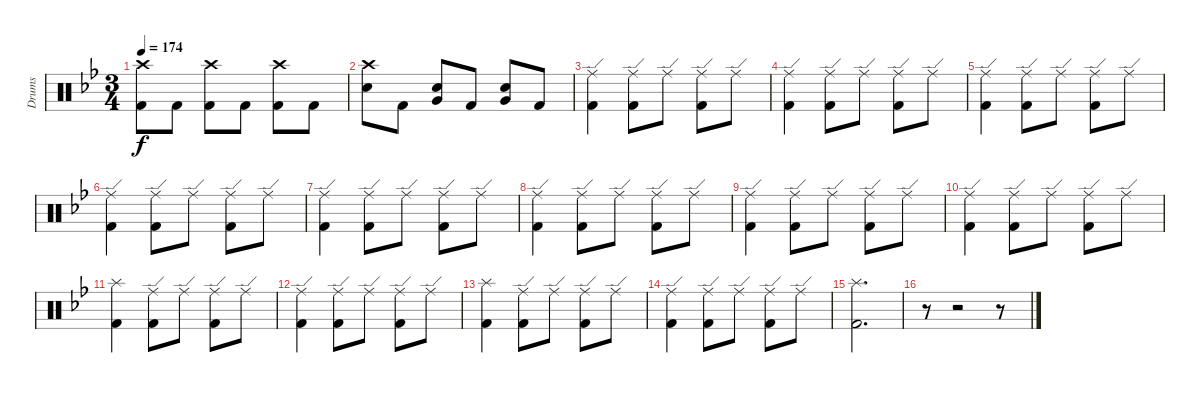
\bracketExtendMode groupsimilarinstruments
\track ("Drumkit" "Drums") {instrument percussion}
\staff {score}
\articulation defaults
\ts (3 4)
\tempo 174
\clef neutral
\ks bb
("Crash high (hit)"{acc forcenatural} "Kick (hit) 2"{acc forcenatural}).8{dy f} "Kick (hit) 2"{acc forcenatural}.8 ("Crash high (hit)"{acc forcenatural} "Kick (hit) 2"{acc forcenatural}).8 "Kick (hit) 2"{acc forcenatural}.8 ("Crash high (hit)"{acc forcenatural} "Kick (hit) 2"{acc forcenatural}).8 "Kick (hit) 2"{acc forcenatural}.8 |
("Crash high (hit)"{acc forcenatural} "Snare (hit) 2"{acc forcenatural}).8 "Kick (hit) 2"{acc forcenatural}.8 ("Snare (hit) 2"{acc forcenatural} "Very Low Tom (hit)"{acc forcenatural}).8 "Kick (hit) 2"{acc forcenatural}.8 ("Snare (hit) 2"{acc forcenatural} "Very Low Tom (hit)"{acc forcenatural}).8 "Kick (hit) 2"{acc forcenatural}.8 |
("Ride (edge)"{acc forcenatural} "Kick (hit) 2"{acc forcenatural}).4 ("Ride (edge)"{acc forcenatural} "Kick (hit) 2"{acc forcenatural}).8 "Ride (edge)"{acc forcenatural}.8 ("Ride (edge)"{acc forcenatural} "Kick (hit) 2"{acc forcenatural}).8 "Ride (edge)"{acc forcenatural}.8 |
("Ride (edge)"{acc forcenatural} "Kick (hit) 2"{acc forcenatural}).4 ("Ride (edge)"{acc forcenatural} "Kick (hit) 2"{acc forcenatural}).8 "Ride (edge)"{acc forcenatural}.8 ("Ride (edge)"{acc forcenatural} "Kick (hit) 2"{acc forcenatural}).8 "Ride (edge)"{acc forcenatural}.8 |
("Ride (edge)"{acc forcenatural} "Kick (hit) 2"{acc forcenatural}).4 ("Ride (edge)"{acc forcenatural} "Kick (hit) 2"{acc forcenatural}).8 "Ride (edge)"{acc forcenatural}.8 ("Ride (edge)"{acc forcenatural} "Kick (hit) 2"{acc forcenatural}).8 "Ride (edge)"{acc forcenatural}.8 |
("Ride (edge)"{acc forcenatural} "Kick (hit) 2"{acc forcenatural}).4 ("Ride (edge)"{acc forcenatural} "Kick (hit) 2"{acc forcenatural}).8 "Ride (edge)"{acc forcenatural}.8 ("Ride (edge)"{acc forcenatural} "Kick (hit) 2"{acc forcenatural}).8 "Ride (edge)"{acc forcenatural}.8 |
("Ride (edge)"{acc forcenatural} "Kick (hit) 2"{acc forcenatural}).4 ("Ride (edge)"{acc forcenatural} "Kick (hit) 2"{acc forcenatural}).8 "Ride (edge)"{acc forcenatural}.8 ("Ride (edge)"{acc forcenatural} "Kick (hit) 2"{acc forcenatural}).8 "Ride (edge)"{acc forcenatural}.8 |
("Ride (edge)"{acc forcenatural} "Kick (hit) 2"{acc forcenatural}).4 ("Ride (edge)"{acc forcenatural} "Kick (hit) 2"{acc forcenatural}).8 "Ride (edge)"{acc forcenatural}.8 ("Ride (edge)"{acc forcenatural} "Kick (hit) 2"{acc forcenatural}).8 "Ride (edge)"{acc forcenatural}.8 |
("Ride (edge)"{acc forcenatural} "Kick (hit) 2"{acc forcenatural}).4 ("Ride (edge)"{acc forcenatural} "Kick (hit) 2"{acc forcenatural}).8 "Ride (edge)"{acc forcenatural}.8 ("Ride (edge)"{acc forcenatural} "Kick (hit) 2"{acc forcenatural}).8 "Ride (edge)"{acc forcenatural}.8 |
("Ride (edge)"{acc forcenatural} "Kick (hit) 2"{acc forcenatural}).4 ("Ride (edge)"{acc forcenatural} "Kick (hit) 2"{acc forcenatural}).8 "Ride (edge)"{acc forcenatural}.8 ("Ride (edge)"{acc forcenatural} "Kick (hit) 2"{acc forcenatural}).8 "Ride (edge)"{acc forcenatural}.8 |
("Splash (hit)"{acc forcenatural} "Kick (hit) 2"{acc forcenatural}).4 ("Ride (edge)"{acc forcenatural} "Kick (hit) 2"{acc forcenatural}).8 "Ride (edge)"{acc forcenatural}.8 ("Ride (edge)"{acc forcenatural} "Kick (hit) 2"{acc forcenatural}).8 "Ride (edge)"{acc forcenatural}.8 |
("Ride (edge)"{acc forcenatural} "Kick (hit) 2"{acc forcenatural}).4 ("Ride (edge)"{acc forcenatural} "Kick (hit) 2"{acc forcenatural}).8 "Ride (edge)"{acc forcenatural}.8 ("Ride (edge)"{acc forcenatural} "Kick (hit) 2"{acc forcenatural}).8 "Ride (edge)"{acc forcenatural}.8 |
("Splash (hit)"{acc forcenatural} "Kick (hit) 2"{acc forcenatural}).4 ("Ride (edge)"{acc forcenatural} "Kick (hit) 2"{acc forcenatural}).8 "Ride (edge)"{acc forcenatural}.8 ("Ride (edge)"{acc forcenatural} "Kick (hit) 2"{acc forcenatural}).8 "Ride (edge)"{acc forcenatural}.8 |
("Ride (edge)"{acc forcenatural} "Kick (hit) 2"{acc forcenatural}).4 ("Ride (edge)"{acc forcenatural} "Kick (hit) 2"{acc forcenatural}).8 "Ride (edge)"{acc forcenatural}.8 ("Ride (edge)"{acc forcenatural} "Kick (hit) 2"{acc forcenatural}).8 "Ride (edge)"{acc forcenatural}.8 |
("Splash (hit)"{acc forcenatural} "Kick (hit) 2"{acc forcenatural}).2{d} |
r.8 r.2 r.8
